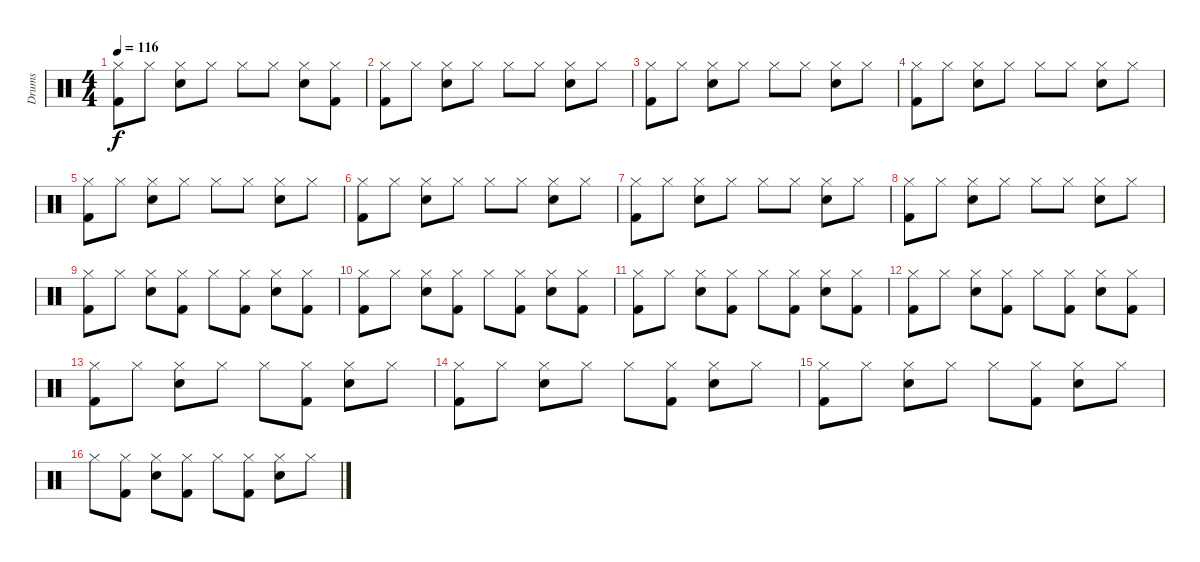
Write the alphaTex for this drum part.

\track ("Drums" "Drums") {instrument percussion}
\staff {score}
\articulation defaults
\ts (4 4)
\tempo 116
\clef neutral
\ks c
("Kick (hit) 2" "Hi-Hat (closed)").8{dy f} "Hi-Hat (closed)".8 ("Snare (hit) 2" "Hi-Hat (closed)").8 "Hi-Hat (closed)".8 "Hi-Hat (closed)".8 "Hi-Hat (closed)".8 ("Snare (hit) 2" "Hi-Hat (closed)").8 ("Kick (hit) 2" "Hi-Hat (closed)").8 |
("Kick (hit) 2" "Hi-Hat (closed)").8 "Hi-Hat (closed)".8 ("Snare (hit) 2" "Hi-Hat (closed)").8 "Hi-Hat (closed)".8 "Hi-Hat (closed)".8 "Hi-Hat (closed)".8 ("Snare (hit) 2" "Hi-Hat (closed)").8 "Hi-Hat (closed)".8 |
("Kick (hit) 2" "Hi-Hat (closed)").8 "Hi-Hat (closed)".8 ("Snare (hit) 2" "Hi-Hat (closed)").8 "Hi-Hat (closed)".8 "Hi-Hat (closed)".8 "Hi-Hat (closed)".8 ("Snare (hit) 2" "Hi-Hat (closed)").8 "Hi-Hat (closed)".8 |
("Kick (hit) 2" "Hi-Hat (closed)").8 "Hi-Hat (closed)".8 ("Snare (hit) 2" "Hi-Hat (closed)").8 "Hi-Hat (closed)".8 "Hi-Hat (closed)".8 "Hi-Hat (closed)".8 ("Snare (hit) 2" "Hi-Hat (closed)").8 "Hi-Hat (closed)".8 |
("Kick (hit) 2" "Hi-Hat (closed)").8 "Hi-Hat (closed)".8 ("Snare (hit) 2" "Hi-Hat (closed)").8 "Hi-Hat (closed)".8 "Hi-Hat (closed)".8 "Hi-Hat (closed)".8 ("Snare (hit) 2" "Hi-Hat (closed)").8 "Hi-Hat (closed)".8 |
("Kick (hit) 2" "Hi-Hat (closed)").8 "Hi-Hat (closed)".8 ("Snare (hit) 2" "Hi-Hat (closed)").8 "Hi-Hat (closed)".8 "Hi-Hat (closed)".8 "Hi-Hat (closed)".8 ("Snare (hit) 2" "Hi-Hat (closed)").8 "Hi-Hat (closed)".8 |
("Kick (hit) 2" "Hi-Hat (closed)").8 "Hi-Hat (closed)".8 ("Snare (hit) 2" "Hi-Hat (closed)").8 "Hi-Hat (closed)".8 "Hi-Hat (closed)".8 "Hi-Hat (closed)".8 ("Snare (hit) 2" "Hi-Hat (closed)").8 "Hi-Hat (closed)".8 |
("Kick (hit) 2" "Hi-Hat (closed)").8 "Hi-Hat (closed)".8 ("Snare (hit) 2" "Hi-Hat (closed)").8 "Hi-Hat (closed)".8 "Hi-Hat (closed)".8 "Hi-Hat (closed)".8 ("Snare (hit) 2" "Hi-Hat (closed)").8 "Hi-Hat (closed)".8 |
("Kick (hit) 2" "Hi-Hat (closed)").8 "Hi-Hat (closed)".8 ("Snare (hit) 2" "Hi-Hat (closed)").8 ("Kick (hit) 2" "Hi-Hat (closed)").8 "Hi-Hat (closed)".8 ("Kick (hit) 2" "Hi-Hat (closed)").8 ("Snare (hit) 2" "Hi-Hat (closed)").8 ("Kick (hit) 2" "Hi-Hat (closed)").8 |
("Kick (hit) 2" "Hi-Hat (closed)").8 "Hi-Hat (closed)".8 ("Snare (hit) 2" "Hi-Hat (closed)").8 ("Kick (hit) 2" "Hi-Hat (closed)").8 "Hi-Hat (closed)".8 ("Kick (hit) 2" "Hi-Hat (closed)").8 ("Snare (hit) 2" "Hi-Hat (closed)").8 ("Kick (hit) 2" "Hi-Hat (closed)").8 |
("Kick (hit) 2" "Hi-Hat (closed)").8 "Hi-Hat (closed)".8 ("Snare (hit) 2" "Hi-Hat (closed)").8 ("Kick (hit) 2" "Hi-Hat (closed)").8 "Hi-Hat (closed)".8 ("Kick (hit) 2" "Hi-Hat (closed)").8 ("Snare (hit) 2" "Hi-Hat (closed)").8 ("Kick (hit) 2" "Hi-Hat (closed)").8 |
("Kick (hit) 2" "Hi-Hat (closed)").8 "Hi-Hat (closed)".8 ("Snare (hit) 2" "Hi-Hat (closed)").8 ("Kick (hit) 2" "Hi-Hat (closed)").8 "Hi-Hat (closed)".8 ("Kick (hit) 2" "Hi-Hat (closed)").8 ("Snare (hit) 2" "Hi-Hat (closed)").8 ("Kick (hit) 2" "Hi-Hat (closed)").8 |
("Kick (hit) 2" "Hi-Hat (closed)").8 "Hi-Hat (closed)".8 ("Snare (hit) 2" "Hi-Hat (closed)").8 "Hi-Hat (closed)".8 "Hi-Hat (closed)".8 ("Kick (hit) 2" "Hi-Hat (closed)").8 ("Snare (hit) 2" "Hi-Hat (closed)").8 "Hi-Hat (closed)".8 |
("Kick (hit) 2" "Hi-Hat (closed)").8 "Hi-Hat (closed)".8 ("Snare (hit) 2" "Hi-Hat (closed)").8 "Hi-Hat (closed)".8 "Hi-Hat (closed)".8 ("Kick (hit) 2" "Hi-Hat (closed)").8 ("Snare (hit) 2" "Hi-Hat (closed)").8 "Hi-Hat (closed)".8 |
("Kick (hit) 2" "Hi-Hat (closed)").8 "Hi-Hat (closed)".8 ("Snare (hit) 2" "Hi-Hat (closed)").8 "Hi-Hat (closed)".8 "Hi-Hat (closed)".8 ("Kick (hit) 2" "Hi-Hat (closed)").8 ("Snare (hit) 2" "Hi-Hat (closed)").8 "Hi-Hat (closed)".8 |
"Hi-Hat (closed)".8 ("Kick (hit) 2" "Hi-Hat (closed)").8 ("Snare (hit) 2" "Hi-Hat (closed)").8 ("Kick (hit) 2" "Hi-Hat (closed)").8 "Hi-Hat (closed)".8 ("Kick (hit) 2" "Hi-Hat (closed)").8 ("Snare (hit) 2" "Hi-Hat (closed)").8 "Hi-Hat (closed)".8
